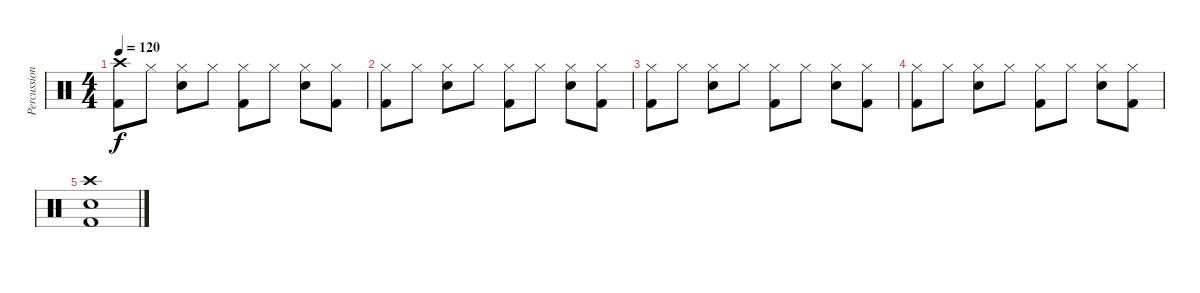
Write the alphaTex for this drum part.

\track ("Percussions" "Percussion") {instrument percussion}
\staff {score}
\articulation defaults
\ts (4 4)
\tempo 120
\clef neutral
\ks c
("Crash high (hit)" "Kick (hit) 2").8{dy f} "Hi-Hat (closed)".8 ("Hi-Hat (closed)" "Electric Snare (hit)").8 "Hi-Hat (closed)".8 ("Hi-Hat (closed)" "Kick (hit) 2").8 "Hi-Hat (closed)".8 ("Hi-Hat (closed)" "Electric Snare (hit)").8 ("Hi-Hat (closed)" "Kick (hit) 2").8 |
("Hi-Hat (closed)" "Kick (hit) 2").8 "Hi-Hat (closed)".8 ("Hi-Hat (closed)" "Electric Snare (hit)").8 "Hi-Hat (closed)".8 ("Hi-Hat (closed)" "Kick (hit) 2").8 "Hi-Hat (closed)".8 ("Hi-Hat (closed)" "Electric Snare (hit)").8 ("Hi-Hat (closed)" "Kick (hit) 2").8 |
("Hi-Hat (closed)" "Kick (hit) 2").8 "Hi-Hat (closed)".8 ("Hi-Hat (closed)" "Electric Snare (hit)").8 "Hi-Hat (closed)".8 ("Hi-Hat (closed)" "Kick (hit) 2").8 "Hi-Hat (closed)".8 ("Hi-Hat (closed)" "Electric Snare (hit)").8 ("Hi-Hat (closed)" "Kick (hit) 2").8 |
("Hi-Hat (closed)" "Kick (hit) 2").8 "Hi-Hat (closed)".8 ("Hi-Hat (closed)" "Electric Snare (hit)").8 "Hi-Hat (closed)".8 ("Hi-Hat (closed)" "Kick (hit) 2").8 "Hi-Hat (closed)".8 ("Hi-Hat (closed)" "Electric Snare (hit)").8 ("Hi-Hat (closed)" "Kick (hit) 2").8 |
("Crash high (hit)" "Electric Snare (hit)" "Kick (hit) 2").1
